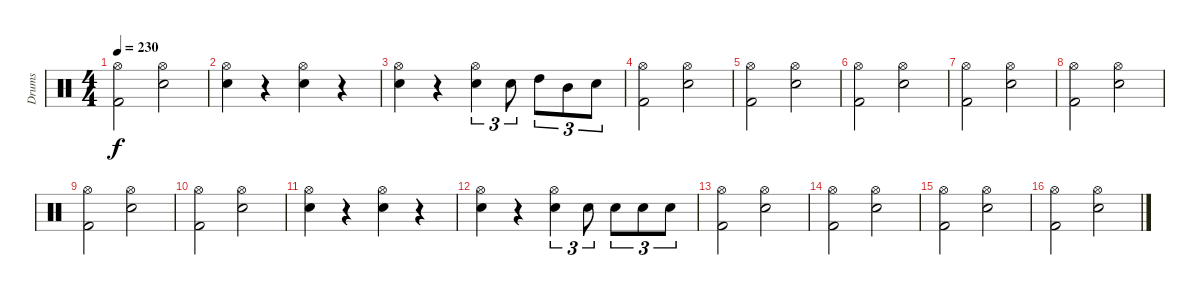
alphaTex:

\track ("Drums" "Drums") {instrument percussion}
\staff {score}
\articulation defaults
\ts (4 4)
\tempo 230
\clef neutral
\ks c
("Hi-Hat (open)" "Kick (hit) 2").2{dy f} ("Hi-Hat (open)" "Electric Snare (hit)").2 |
("Hi-Hat (open)" "Electric Snare (hit)").4 r.4 ("Hi-Hat (open)" "Electric Snare (hit)").4 r.4 |
("Hi-Hat (open)" "Electric Snare (hit)").4 r.4 ("Hi-Hat (open)" "Electric Snare (hit)").4{tu (3 2)} "Electric Snare (hit)".8{tu (3 2)} "High Tom (hit)".8{tu (3 2)} "Mid Tom (hit)".8{tu (3 2)} "Electric Snare (hit)".8{tu (3 2)} |
("Hi-Hat (open)" "Kick (hit) 2").2 ("Hi-Hat (open)" "Electric Snare (hit)").2 |
("Hi-Hat (open)" "Kick (hit) 2").2 ("Hi-Hat (open)" "Electric Snare (hit)").2 |
("Hi-Hat (open)" "Kick (hit) 2").2 ("Hi-Hat (open)" "Electric Snare (hit)").2 |
("Hi-Hat (open)" "Kick (hit) 2").2 ("Hi-Hat (open)" "Electric Snare (hit)").2 |
("Hi-Hat (open)" "Kick (hit) 2").2 ("Hi-Hat (open)" "Electric Snare (hit)").2 |
("Hi-Hat (open)" "Kick (hit) 2").2 ("Hi-Hat (open)" "Electric Snare (hit)").2 |
("Hi-Hat (open)" "Kick (hit) 2").2 ("Hi-Hat (open)" "Electric Snare (hit)").2 |
("Hi-Hat (open)" "Electric Snare (hit)").4 r.4 ("Hi-Hat (open)" "Electric Snare (hit)").4 r.4 |
("Hi-Hat (open)" "Electric Snare (hit)").4 r.4 ("Hi-Hat (open)" "Electric Snare (hit)").4{tu (3 2)} "Electric Snare (hit)".8{tu (3 2)} "Electric Snare (hit)".8{tu (3 2)} "Electric Snare (hit)".8{tu (3 2)} "Electric Snare (hit)".8{tu (3 2)} |
("Hi-Hat (open)" "Kick (hit) 2").2 ("Hi-Hat (open)" "Electric Snare (hit)").2 |
("Hi-Hat (open)" "Kick (hit) 2").2 ("Hi-Hat (open)" "Electric Snare (hit)").2 |
("Hi-Hat (open)" "Kick (hit) 2").2 ("Hi-Hat (open)" "Electric Snare (hit)").2 |
("Hi-Hat (open)" "Kick (hit) 2").2 ("Hi-Hat (open)" "Electric Snare (hit)").2
